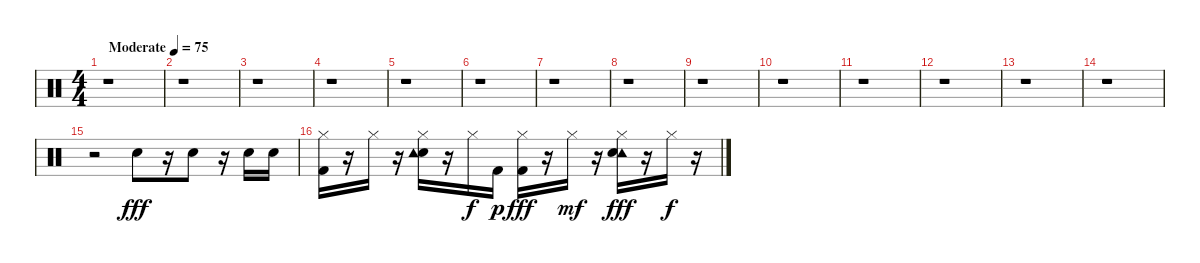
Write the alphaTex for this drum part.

\track "" {instrument percussion}
\staff {score}
\articulation defaults
\ts (4 4)
\tempo (75 "Moderate")
\clef neutral
\ks c
r.1{dy fff} |
r.1 |
r.1 |
r.1 |
r.1 |
r.1 |
r.1 |
r.1 |
r.1 |
r.1 |
r.1 |
r.1 |
r.1 |
r.1 |
r.2 "Electric Snare (hit)".8 r.16 "Electric Snare (hit)".8 r.16 "Electric Snare (hit)".16 "Electric Snare (hit)".16 |
("Hi-Hat (closed)" "Kick (hit) 2").16 r.16 "Hi-Hat (closed)".16 r.16 ("Electric Snare (hit)" "Tambourine (hit)" "Hi-Hat (closed)").16 r.16 "Hi-Hat (closed)".16{dy f} "Kick (hit) 2".16{dy p} ("Kick (hit) 2" "Hi-Hat (closed)").16{dy fff} r.16 "Hi-Hat (closed)".16{dy mf} r.16 ("Tambourine (hit)" "Hi-Hat (closed)" "Electric Snare (hit)").16{dy fff} r.16 "Hi-Hat (closed)".16{dy f} r.16
